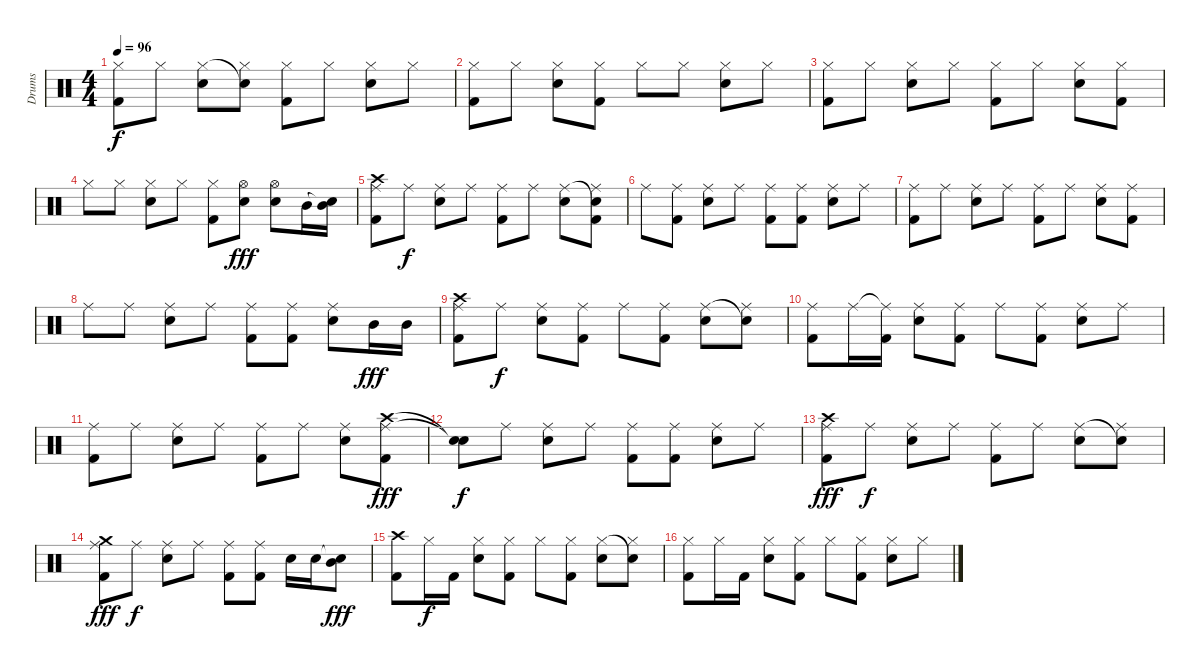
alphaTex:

\track ("Drums" "Drums") {instrument percussion}
\staff {score}
\articulation defaults
\ts (4 4)
\tempo 96
\clef neutral
\ks c
("Hi-Hat (closed)" "Kick (hit) 2").8{dy f} "Hi-Hat (closed)".8 ("Hi-Hat (closed)" "Snare (hit) 2").8 ("Snare (hit)"{t} "Hi-Hat (closed)").8 ("Hi-Hat (closed)" "Kick (hit) 2").8 "Hi-Hat (closed)".8 ("Hi-Hat (closed)" "Snare (hit) 2").8 "Hi-Hat (closed)".8 |
("Hi-Hat (closed)" "Kick (hit) 2").8 "Hi-Hat (closed)".8 ("Hi-Hat (closed)" "Snare (hit) 2").8 ("Hi-Hat (closed)" "Kick (hit) 2").8 "Hi-Hat (closed)".8 "Hi-Hat (closed)".8 ("Hi-Hat (closed)" "Snare (hit) 2").8 "Hi-Hat (closed)".8 |
("Hi-Hat (closed)" "Kick (hit) 2").8 "Hi-Hat (closed)".8 ("Hi-Hat (closed)" "Snare (hit) 2").8 "Hi-Hat (closed)".8 ("Hi-Hat (closed)" "Kick (hit) 2").8 "Hi-Hat (closed)".8 ("Hi-Hat (closed)" "Snare (hit) 2").8 ("Hi-Hat (closed)" "Kick (hit) 2").8 |
"Hi-Hat (closed)".8 "Hi-Hat (closed)".8 ("Hi-Hat (closed)" "Snare (hit) 2").8 "Hi-Hat (closed)".8 ("Hi-Hat (closed)" "Kick (hit) 2").8 ("Hi-Hat (open)" "Snare (hit) 2").8{dy fff} ("Hi-Hat (open)" "Snare (hit) 2").8 "Mid Tom (hit)".16 ("Snare (hit)"{t} "Mid Tom (hit)").16 |
("Crash high (hit)" "Ride (middle)" "Kick (hit) 2").8 "Ride (middle)".8{dy f} ("Ride (middle)" "Snare (hit) 2").8 "Ride (middle)".8 ("Ride (middle)" "Kick (hit) 2").8 "Ride (middle)".8 ("Ride (middle)" "Snare (hit) 2").8 ("Snare (hit)"{t} "Ride (middle)" "Kick (hit) 2").8 |
"Ride (middle)".8 ("Ride (middle)" "Kick (hit) 2").8 ("Ride (middle)" "Snare (hit) 2").8 "Ride (middle)".8 ("Ride (middle)" "Kick (hit) 2").8 ("Ride (middle)" "Kick (hit) 2").8 ("Ride (middle)" "Snare (hit) 2").8 "Ride (middle)".8 |
("Ride (middle)" "Kick (hit) 2").8 "Ride (middle)".8 ("Ride (middle)" "Snare (hit) 2").8 "Ride (middle)".8 ("Ride (middle)" "Kick (hit) 2").8 "Ride (middle)".8 ("Ride (middle)" "Snare (hit) 2").8 ("Ride (middle)" "Kick (hit) 2").8 |
"Ride (middle)".8 "Ride (middle)".8 ("Ride (middle)" "Snare (hit) 2").8 "Ride (middle)".8 ("Ride (middle)" "Kick (hit) 2").8 ("Ride (middle)" "Kick (hit) 2").8 ("Ride (middle)" "Snare (hit) 2").8 "Mid Tom (hit)".16{dy fff} "Mid Tom (hit)".16 |
("Crash high (hit)" "Ride (middle)" "Kick (hit) 2").8 "Ride (middle)".8{dy f} ("Ride (middle)" "Snare (hit) 2").8 ("Ride (middle)" "Kick (hit) 2").8 "Ride (middle)".8 ("Ride (middle)" "Kick (hit) 2").8 ("Ride (middle)" "Snare (hit) 2").8 ("Snare (hit)"{t} "Ride (middle)").8 |
("Ride (middle)" "Kick (hit) 2").8 "Ride (middle)".16 ("Ride (middle)"{t} "Kick (hit) 2").16 ("Ride (middle)" "Snare (hit) 2").8 ("Ride (middle)" "Kick (hit) 2").8 "Ride (middle)".8 ("Ride (middle)" "Kick (hit) 2").8 ("Ride (middle)" "Snare (hit) 2").8 "Ride (middle)".8 |
("Ride (middle)" "Kick (hit) 2").8 "Ride (middle)".8 ("Ride (middle)" "Snare (hit) 2").8 "Ride (middle)".8 ("Ride (middle)" "Kick (hit) 2").8 "Ride (middle)".8 ("Ride (middle)" "Snare (hit) 2").8 ("Crash high (hit)" "Ride (middle)" "Kick (hit) 2").8{dy fff} |
("Snare (hit)"{t} "Snare (hit)"{t}).8{dy f} "Ride (middle)".8 ("Ride (middle)" "Snare (hit) 2").8 "Ride (middle)".8 ("Ride (middle)" "Kick (hit) 2").8 ("Ride (middle)" "Kick (hit) 2").8 ("Ride (middle)" "Snare (hit) 2").8 "Ride (middle)".8 |
("Crash high (hit)" "Ride (middle)" "Kick (hit) 2").8{dy fff} "Ride (middle)".8{dy f} ("Ride (middle)" "Snare (hit) 2").8 "Ride (middle)".8 ("Ride (middle)" "Kick (hit) 2").8 "Ride (middle)".8 ("Ride (middle)" "Snare (hit) 2").8 ("Snare (hit)"{t} "Ride (middle)").8 |
("Crash medium (hit)" "Ride (middle)" "Kick (hit) 2").8{dy fff} "Ride (middle)".8{dy f} ("Ride (middle)" "Snare (hit) 2").8 "Ride (middle)".8 ("Ride (middle)" "Kick (hit) 2").8 ("Ride (middle)" "Kick (hit) 2").8 "Snare (hit) 2".16 "Snare (hit) 2".16 ("Snare (hit)"{t} "Mid Tom (hit)").8{dy fff} |
("Crash high (hit)" "Kick (hit) 2").8 "Hi-Hat (closed)".16{dy f} "Kick (hit) 2".16 ("Hi-Hat (closed)" "Snare (hit) 2").8 ("Hi-Hat (closed)" "Kick (hit) 2").8 "Hi-Hat (closed)".8 ("Hi-Hat (closed)" "Kick (hit) 2").8 ("Hi-Hat (closed)" "Snare (hit) 2").8 ("Snare (hit)"{t} "Hi-Hat (closed)").8 |
("Hi-Hat (closed)" "Kick (hit) 2").8 "Hi-Hat (closed)".16 "Kick (hit) 2".16 ("Hi-Hat (closed)" "Snare (hit) 2").8 ("Hi-Hat (closed)" "Kick (hit) 2").8 "Hi-Hat (closed)".8 ("Hi-Hat (closed)" "Kick (hit) 2").8 ("Hi-Hat (closed)" "Snare (hit) 2").8 "Hi-Hat (closed)".8
